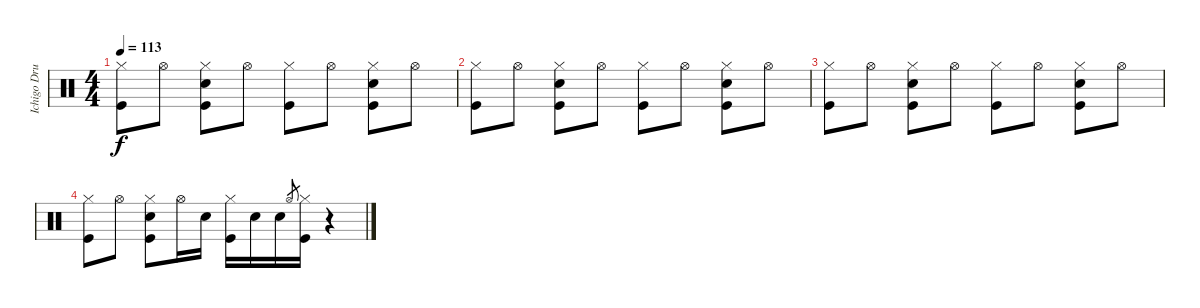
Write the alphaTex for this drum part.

\track ("Ichigo Drums" "Ichigo Dru") {instrument percussion}
\staff {score}
\articulation defaults
\ts (4 4)
\tempo 113
\clef neutral
\ks c
("Hi-Hat (closed)" "Kick (hit)").8{dy f} "Hi-Hat (open)".8 ("Hi-Hat (closed)" "Snare (hit) 2" "Kick (hit)").8 "Hi-Hat (open)".8 ("Hi-Hat (closed)" "Kick (hit)").8 "Hi-Hat (open)".8 ("Hi-Hat (closed)" "Snare (hit) 2" "Kick (hit)").8 "Hi-Hat (open)".8 |
("Hi-Hat (closed)" "Kick (hit)").8 "Hi-Hat (open)".8 ("Hi-Hat (closed)" "Snare (hit) 2" "Kick (hit)").8 "Hi-Hat (open)".8 ("Hi-Hat (closed)" "Kick (hit)").8 "Hi-Hat (open)".8 ("Hi-Hat (closed)" "Snare (hit) 2" "Kick (hit)").8 "Hi-Hat (open)".8 |
("Hi-Hat (closed)" "Kick (hit)").8 "Hi-Hat (open)".8 ("Hi-Hat (closed)" "Snare (hit) 2" "Kick (hit)").8 "Hi-Hat (open)".8 ("Hi-Hat (closed)" "Kick (hit)").8 "Hi-Hat (open)".8 ("Hi-Hat (closed)" "Snare (hit) 2" "Kick (hit)").8 "Hi-Hat (open)".8 |
("Hi-Hat (closed)" "Kick (hit)").8 "Hi-Hat (open)".8 ("Hi-Hat (closed)" "Snare (hit) 2" "Kick (hit)").8 "Hi-Hat (open)".16 "Snare (hit) 2".16 ("Hi-Hat (closed)" "Kick (hit)").16 "Snare (hit) 2".16 "Snare (hit) 2".16 "Hi-Hat (open)".8{gr} ("Hi-Hat (closed)" "Kick (hit)").16 r.4
